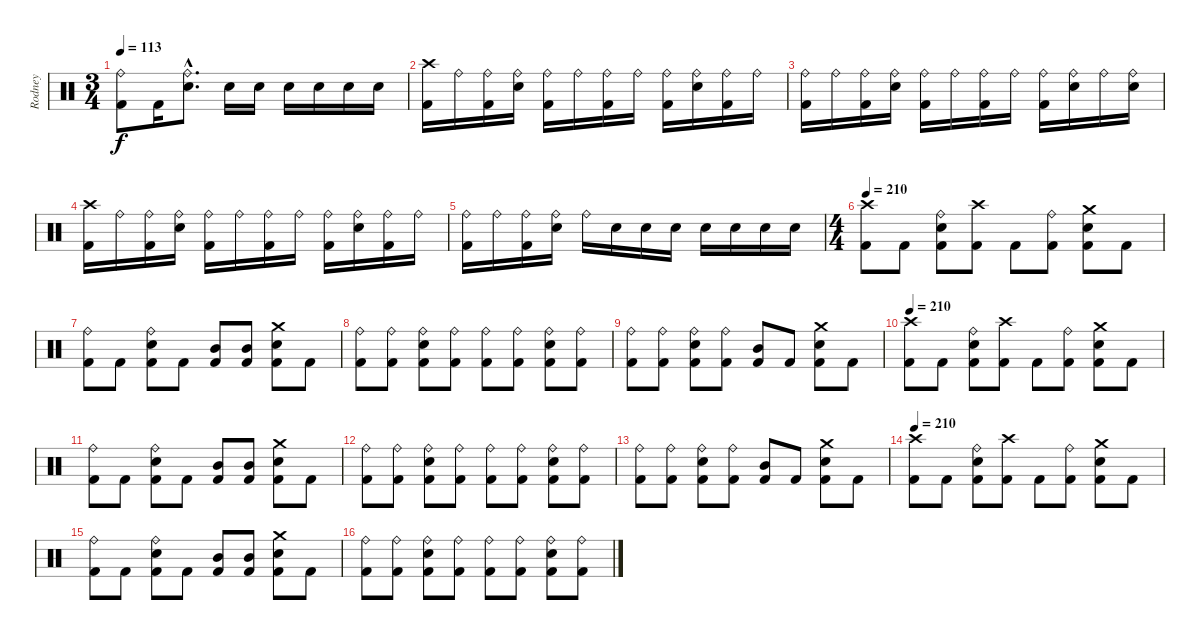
\track ("Rodney" "Rodney") {instrument percussion}
\staff {score}
\articulation defaults
\ts (3 4)
\tempo 113
\clef neutral
\ks c
("Ride (bell)" "Kick (hit) 2").8{dy f} "Kick (hit) 2".16 ("Ride (bell)"{hac} "Snare (hit) 2"{hac}).8{d} "Snare (hit) 2".16 "Snare (hit) 2".16 "Snare (hit) 2".16 "Snare (hit) 2".16 "Snare (hit) 2".16 "Snare (hit) 2".16 |
("Crash high (hit)" "Kick (hit) 2").16 "Ride (bell)".16 ("Ride (bell)" "Kick (hit) 2").16 ("Ride (bell)" "Snare (hit) 2").16 ("Ride (bell)" "Kick (hit) 2").16 "Ride (bell)".16 ("Ride (bell)" "Kick (hit) 2").16 "Ride (bell)".16 ("Ride (bell)" "Kick (hit) 2").16 ("Ride (bell)" "Snare (hit) 2").16 ("Ride (bell)" "Kick (hit) 2").16 "Ride (bell)".16 |
("Ride (bell)" "Kick (hit) 2").16 "Ride (bell)".16 ("Ride (bell)" "Kick (hit) 2").16 ("Ride (bell)" "Snare (hit) 2").16 ("Ride (bell)" "Kick (hit) 2").16 "Ride (bell)".16 ("Ride (bell)" "Kick (hit) 2").16 "Ride (bell)".16 ("Ride (bell)" "Kick (hit) 2").16 ("Ride (bell)" "Snare (hit) 2").16 "Ride (bell)".16 ("Ride (bell)" "Snare (hit) 2").16 |
("Crash high (hit)" "Kick (hit) 2").16 "Ride (bell)".16 ("Ride (bell)" "Kick (hit) 2").16 ("Ride (bell)" "Snare (hit) 2").16 ("Ride (bell)" "Kick (hit) 2").16 "Ride (bell)".16 ("Ride (bell)" "Kick (hit) 2").16 "Ride (bell)".16 ("Ride (bell)" "Kick (hit) 2").16 ("Ride (bell)" "Snare (hit) 2").16 ("Ride (bell)" "Kick (hit) 2").16 "Ride (bell)".16 |
("Ride (bell)" "Kick (hit) 2").16 "Ride (bell)".16 ("Ride (bell)" "Kick (hit) 2").16 ("Ride (bell)" "Snare (hit) 2").16 "Ride (bell)".16 "Snare (hit) 2".16 "Snare (hit) 2".16 "Snare (hit) 2".16 "Snare (hit) 2".16 "Snare (hit) 2".16 "Snare (hit) 2".16 "Snare (hit) 2".16 |
\ts (4 4)
\tempo 210
("Crash high (hit)" "Kick (hit) 2").8 "Kick (hit) 2".8 ("Ride (bell)" "Snare (hit) 2" "Kick (hit) 2").8 ("Crash high (hit)" "Kick (hit) 2").8 "Kick (hit) 2".8 ("Ride (bell)" "Kick (hit) 2").8 ("Crash medium (hit)" "Snare (hit) 2" "Kick (hit) 2").8 "Kick (hit) 2".8 |
("Ride (bell)" "Kick (hit) 2").8 "Kick (hit) 2".8 ("Ride (bell)" "Snare (hit) 2" "Kick (hit) 2").8 "Kick (hit) 2".8 ("Mid Tom (hit)" "Kick (hit) 2").8 ("Mid Tom (hit)" "Kick (hit) 2").8 ("Crash medium (hit)" "Snare (hit) 2" "Kick (hit) 2").8 "Kick (hit) 2".8 |
("Ride (bell)" "Kick (hit) 2").8 ("Ride (bell)" "Kick (hit) 2").8 ("Ride (bell)" "Snare (hit) 2" "Kick (hit) 2").8 ("Ride (bell)" "Kick (hit) 2").8 ("Ride (bell)" "Kick (hit) 2").8 ("Ride (bell)" "Kick (hit) 2").8 ("Ride (bell)" "Snare (hit) 2" "Kick (hit) 2").8 ("Ride (bell)" "Kick (hit) 2").8 |
("Ride (bell)" "Kick (hit) 2").8 ("Ride (bell)" "Kick (hit) 2").8 ("Ride (bell)" "Snare (hit) 2" "Kick (hit) 2").8 ("Ride (bell)" "Kick (hit) 2").8 ("Mid Tom (hit)" "Kick (hit) 2").8 "Kick (hit) 2".8 ("Crash medium (hit)" "Snare (hit) 2" "Kick (hit) 2").8 "Kick (hit) 2".8 |
\tempo 210
("Crash high (hit)" "Kick (hit) 2").8 "Kick (hit) 2".8 ("Ride (bell)" "Snare (hit) 2" "Kick (hit) 2").8 ("Crash high (hit)" "Kick (hit) 2").8 "Kick (hit) 2".8 ("Ride (bell)" "Kick (hit) 2").8 ("Crash medium (hit)" "Snare (hit) 2" "Kick (hit) 2").8 "Kick (hit) 2".8 |
("Ride (bell)" "Kick (hit) 2").8 "Kick (hit) 2".8 ("Ride (bell)" "Snare (hit) 2" "Kick (hit) 2").8 "Kick (hit) 2".8 ("Mid Tom (hit)" "Kick (hit) 2").8 ("Mid Tom (hit)" "Kick (hit) 2").8 ("Crash medium (hit)" "Snare (hit) 2" "Kick (hit) 2").8 "Kick (hit) 2".8 |
("Ride (bell)" "Kick (hit) 2").8 ("Ride (bell)" "Kick (hit) 2").8 ("Ride (bell)" "Snare (hit) 2" "Kick (hit) 2").8 ("Ride (bell)" "Kick (hit) 2").8 ("Ride (bell)" "Kick (hit) 2").8 ("Ride (bell)" "Kick (hit) 2").8 ("Ride (bell)" "Snare (hit) 2" "Kick (hit) 2").8 ("Ride (bell)" "Kick (hit) 2").8 |
("Ride (bell)" "Kick (hit) 2").8 ("Ride (bell)" "Kick (hit) 2").8 ("Ride (bell)" "Snare (hit) 2" "Kick (hit) 2").8 ("Ride (bell)" "Kick (hit) 2").8 ("Mid Tom (hit)" "Kick (hit) 2").8 "Kick (hit) 2".8 ("Crash medium (hit)" "Snare (hit) 2" "Kick (hit) 2").8 "Kick (hit) 2".8 |
\tempo 210
("Crash high (hit)" "Kick (hit) 2").8 "Kick (hit) 2".8 ("Ride (bell)" "Snare (hit) 2" "Kick (hit) 2").8 ("Crash high (hit)" "Kick (hit) 2").8 "Kick (hit) 2".8 ("Ride (bell)" "Kick (hit) 2").8 ("Crash medium (hit)" "Snare (hit) 2" "Kick (hit) 2").8 "Kick (hit) 2".8 |
("Ride (bell)" "Kick (hit) 2").8 "Kick (hit) 2".8 ("Ride (bell)" "Snare (hit) 2" "Kick (hit) 2").8 "Kick (hit) 2".8 ("Mid Tom (hit)" "Kick (hit) 2").8 ("Mid Tom (hit)" "Kick (hit) 2").8 ("Crash medium (hit)" "Snare (hit) 2" "Kick (hit) 2").8 "Kick (hit) 2".8 |
("Ride (bell)" "Kick (hit) 2").8 ("Ride (bell)" "Kick (hit) 2").8 ("Ride (bell)" "Snare (hit) 2" "Kick (hit) 2").8 ("Ride (bell)" "Kick (hit) 2").8 ("Ride (bell)" "Kick (hit) 2").8 ("Ride (bell)" "Kick (hit) 2").8 ("Ride (bell)" "Snare (hit) 2" "Kick (hit) 2").8 ("Ride (bell)" "Kick (hit) 2").8
